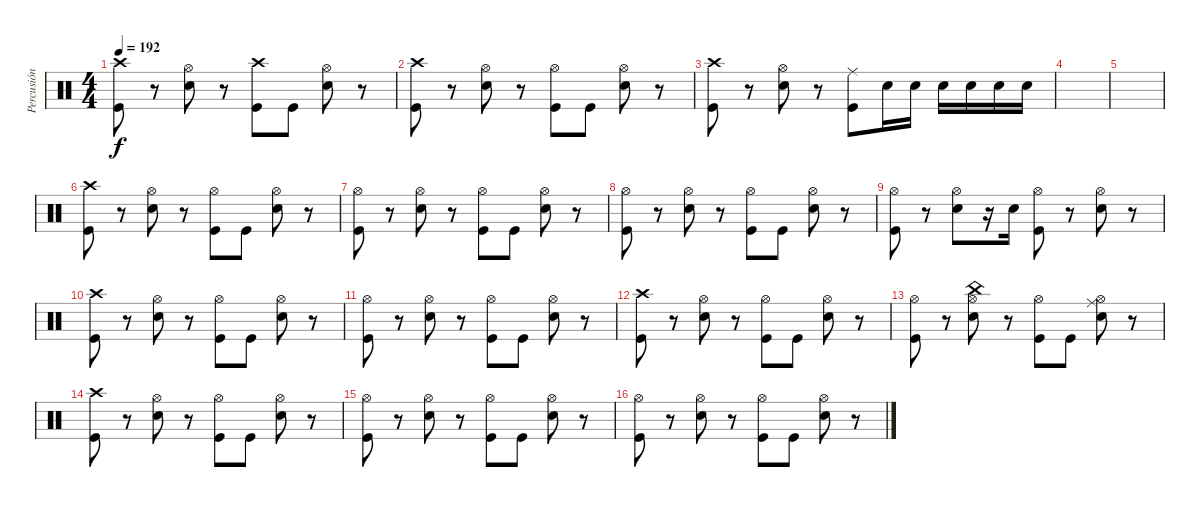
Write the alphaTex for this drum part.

\track ("Percusión" "Percusión") {instrument percussion}
\staff {score}
\articulation defaults
\ts (4 4)
\tempo 192
\clef neutral
\ks c
("Kick (hit)" "Crash high (hit)").8{dy f} r.8 ("Electric Snare (hit)" "Hi-Hat (open)").8 r.8 ("Kick (hit)" "Crash high (hit)").8 "Kick (hit)".8 ("Electric Snare (hit)" "Hi-Hat (open)").8 r.8 |
("Kick (hit)" "Crash high (hit)").8 r.8 ("Electric Snare (hit)" "Hi-Hat (open)").8 r.8 ("Kick (hit)" "Hi-Hat (open)").8 "Kick (hit)".8 ("Electric Snare (hit)" "Hi-Hat (open)").8 r.8 |
("Kick (hit)" "Crash high (hit)").8 r.8 ("Electric Snare (hit)" "Hi-Hat (open)").8 r.8 ("Kick (hit)" "Ride (middle)").8 "Electric Snare (hit)".16 "Electric Snare (hit)".16 "Electric Snare (hit)".16 "Electric Snare (hit)".16 "Electric Snare (hit)".16 "Electric Snare (hit)".16 |
|
|
("Kick (hit)" "Crash high (hit)").8 r.8 ("Electric Snare (hit)" "Hi-Hat (open)").8 r.8 ("Kick (hit)" "Hi-Hat (open)").8 "Kick (hit)".8 ("Electric Snare (hit)" "Hi-Hat (open)").8 r.8 |
("Kick (hit)" "Hi-Hat (open)").8 r.8 ("Electric Snare (hit)" "Hi-Hat (open)").8 r.8 ("Kick (hit)" "Hi-Hat (open)").8 "Kick (hit)".8 ("Electric Snare (hit)" "Hi-Hat (open)").8 r.8 |
("Kick (hit)" "Hi-Hat (open)").8 r.8 ("Electric Snare (hit)" "Hi-Hat (open)").8 r.8 ("Kick (hit)" "Hi-Hat (open)").8 "Kick (hit)".8 ("Electric Snare (hit)" "Hi-Hat (open)").8 r.8 |
("Kick (hit)" "Hi-Hat (open)").8 r.8 ("Electric Snare (hit)" "Hi-Hat (open)").8 r.16 "Electric Snare (hit)".16 ("Kick (hit)" "Hi-Hat (open)").8 r.8 ("Electric Snare (hit)" "Hi-Hat (open)").8 r.8 |
("Kick (hit)" "Crash high (hit)").8 r.8 ("Electric Snare (hit)" "Hi-Hat (open)").8 r.8 ("Kick (hit)" "Hi-Hat (open)").8 "Kick (hit)".8 ("Electric Snare (hit)" "Hi-Hat (open)").8 r.8 |
("Kick (hit)" "Hi-Hat (open)").8 r.8 ("Electric Snare (hit)" "Hi-Hat (open)").8 r.8 ("Kick (hit)" "Hi-Hat (open)").8 "Kick (hit)".8 ("Electric Snare (hit)" "Hi-Hat (open)").8 r.8 |
("Kick (hit)" "Crash high (hit)").8 r.8 ("Electric Snare (hit)" "Hi-Hat (open)").8 r.8 ("Kick (hit)" "Hi-Hat (open)").8 "Kick (hit)".8 ("Electric Snare (hit)" "Hi-Hat (open)").8 r.8 |
("Kick (hit)" "Hi-Hat (open)").8 r.8 ("Electric Snare (hit)" "Hi-Hat (open)" "China (hit)").8 r.8 ("Kick (hit)" "Hi-Hat (open)").8 "Kick (hit)".8 ("Electric Snare (hit)" "Hi-Hat (open)" "Ride (middle)").8 r.8 |
("Kick (hit)" "Crash high (hit)").8 r.8 ("Electric Snare (hit)" "Hi-Hat (open)").8 r.8 ("Kick (hit)" "Hi-Hat (open)").8 "Kick (hit)".8 ("Electric Snare (hit)" "Hi-Hat (open)").8 r.8 |
("Kick (hit)" "Hi-Hat (open)").8 r.8 ("Electric Snare (hit)" "Hi-Hat (open)").8 r.8 ("Kick (hit)" "Hi-Hat (open)").8 "Kick (hit)".8 ("Electric Snare (hit)" "Hi-Hat (open)").8 r.8 |
("Kick (hit)" "Hi-Hat (open)").8 r.8 ("Electric Snare (hit)" "Hi-Hat (open)").8 r.8 ("Kick (hit)" "Hi-Hat (open)").8 "Kick (hit)".8 ("Electric Snare (hit)" "Hi-Hat (open)").8 r.8
